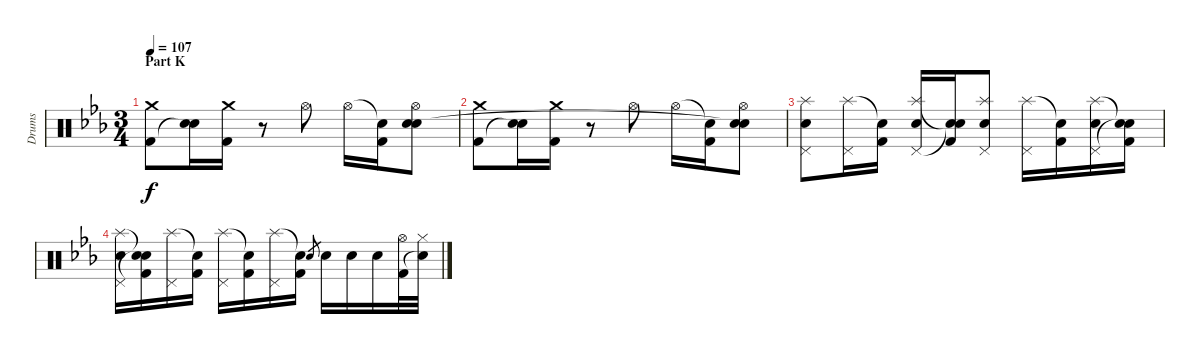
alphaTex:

\track ("Drums" "Drums") {instrument percussion}
\staff {score}
\articulation defaults
\ts (3 4)
\section ("" "Part K")
\tempo 107
\clef neutral
\ks eb
("Crash medium (hit)" "Kick (hit) 2").8{dy f} ("Electric Snare (hit)" "Snare (hit)"{t}).16 ("Crash medium (hit)" "Kick (hit) 2").16 r.8 "Hi-Hat (open)".8 "Hi-Hat (open)".16 ("Snare (hit)"{t} "Kick (hit) 2").16 ("Hi-Hat (open)" "Electric Snare (hit)" "Snare (hit)"{t}).8 |
("Crash medium (hit)" "Kick (hit) 2").8 ("Electric Snare (hit)" "Snare (hit)"{t}).16 ("Crash medium (hit)" "Kick (hit) 2").16 r.8 "Hi-Hat (open)".8 "Hi-Hat (open)".16 ("Snare (hit)"{t} "Kick (hit) 2").16 ("Hi-Hat (open)" "Electric Snare (hit)" "Snare (hit)"{t}).8 |
("Splash (hit)" "Pedal Hi-Hat (hit)" "Electric Snare (hit)").8 ("Splash (hit)" "Pedal Hi-Hat (hit)").16 ("Snare (hit)"{t} "Kick (hit) 2").16 ("Splash (hit)" "Pedal Hi-Hat (hit)" "Electric Snare (hit)").16 ("Snare (hit)"{t} "Snare (hit)"{t} "Kick (hit) 2").16 ("Splash (hit)" "Pedal Hi-Hat (hit)" "Electric Snare (hit)").8 ("Splash (hit)" "Pedal Hi-Hat (hit)").16 ("Snare (hit)"{t} "Kick (hit) 2").16 ("Splash (hit)" "Pedal Hi-Hat (hit)" "Electric Snare (hit)").16 ("Snare (hit)"{t} "Snare (hit)"{t} "Kick (hit) 2").16 |
("Splash (hit)" "Pedal Hi-Hat (hit)" "Electric Snare (hit)").16 ("Snare (hit)"{t} "Snare (hit)"{t} "Kick (hit) 2").16 ("Splash (hit)" "Pedal Hi-Hat (hit)").16 ("Snare (hit)"{t} "Kick (hit) 2").16 ("Splash (hit)" "Pedal Hi-Hat (hit)").16 ("Snare (hit)"{t} "Kick (hit) 2").16 ("Splash (hit)" "Pedal Hi-Hat (hit)").16 ("Snare (hit)"{t} "Kick (hit) 2").16 "Electric Snare (hit)".8{gr} "Electric Snare (hit)".16 "Electric Snare (hit)".16 "Electric Snare (hit)".16 ("Hi-Hat (open)" "Kick (hit) 2").32 ("Hi-Hat (closed)" "Snare (hit)"{t}).32
